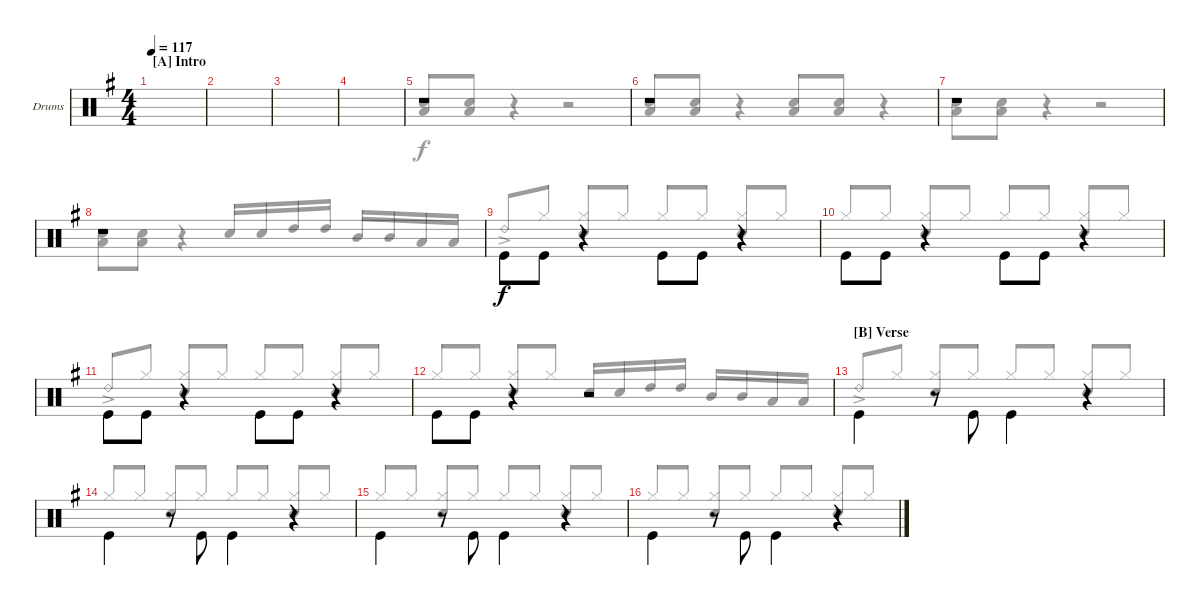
\defaultSystemsLayout 4
\bracketExtendMode groupsimilarinstruments
\firstSystemTrackNameOrientation horizontal
\otherSystemsTrackNameOrientation horizontal
\track ("Drums" "Drums") {instrument percussion}
\staff {score}
\articulation defaults
\voice
\ts (4 4)
\section ("A" "Intro")
\tempo 117
\clef neutral
\scale
1.05675
\ks g
|
\scale
0.943253 |
\scale
1.02648 |
\scale
0.973518 |
\scale
1.02648 r.1 |
\scale
0.973518 r.1 |
\scale
1.02648 r.1 |
\scale
0.973518 r.1 |
\scale
1.02648 "Kick (hit)".8{beam invert} "Kick (hit)".8 r.4 "Kick (hit)".8{beam invert} "Kick (hit)".8 r.4 |
\scale
0.973518 "Kick (hit)".8{beam invert} "Kick (hit)".8 r.4 "Kick (hit)".8{beam invert} "Kick (hit)".8 r.4 |
\scale
1.02648 "Kick (hit)".8{beam invert} "Kick (hit)".8 r.4 "Kick (hit)".8{beam invert} "Kick (hit)".8 r.4 |
\scale
0.973518 "Kick (hit)".8{beam invert} "Kick (hit)".8 r.4 r.2 |
\section ("B" "Verse")
\scale
1.02648 "Kick (hit)".4{beam invert} r.8 "Kick (hit)".8{beam invert} "Kick (hit)".4{beam invert} r.4 |
\scale
0.973518 "Kick (hit)".4{beam invert} r.8 "Kick (hit)".8{beam invert} "Kick (hit)".4{beam invert} r.4 |
\scale
1.02648 "Kick (hit)".4{beam invert} r.8 "Kick (hit)".8{beam invert} "Kick (hit)".4{beam invert} r.4 |
\scale
0.973518 "Kick (hit)".4{beam invert} r.8 "Kick (hit)".8{beam invert} "Kick (hit)".4{beam invert} r.4
\voice
\clef neutral
\ottava regular
\simile none
\scale
1.05675
\ks g
|
\scale
0.943253 |
\scale
1.02648 |
\scale
0.973518 |
\scale
1.02648 ("Low Tom (hit)" "Snare (hit) 2").8{beam invert} ("Low Tom (hit)" "Snare (hit) 2").8 r.4 r.2 |
\scale
0.973518 ("Low Tom (hit)" "Snare (hit) 2").8 ("Low Tom (hit)" "Snare (hit) 2").8 r.4{beam invert} ("Low Tom (hit)" "Snare (hit) 2").8 ("Low Tom (hit)" "Snare (hit) 2").8 r.4{beam invert} |
\scale
1.02648 ("Low Tom (hit)" "Snare (hit) 2").8 ("Low Tom (hit)" "Snare (hit) 2").8 r.4 r.2 |
\scale
0.973518 ("Low Tom (hit)" "Snare (hit) 2").8 ("Low Tom (hit)" "Snare (hit) 2").8 r.4 "Snare (hit) 2".16{beam invert} "Snare (hit) 2".16 "High Tom (hit)".16 "High Tom (hit)".16 "Mid Tom (hit)".16{beam invert} "Mid Tom (hit)".16 "Low Tom (hit)".16 "Low Tom (hit)".16 |
\scale
1.02648 "Ride (bell) 2"{ac}.8{beam invert} "Hi-Hat (closed)".8 ("Hi-Hat (closed)" "Snare (hit) 2").8{beam invert} "Hi-Hat (closed)".8 "Hi-Hat (closed)".8{beam invert} "Hi-Hat (closed)".8 ("Hi-Hat (closed)" "Snare (hit) 2").8{beam invert} "Hi-Hat (closed)".8 |
\scale
0.973518 "Hi-Hat (closed)".8{beam invert} "Hi-Hat (closed)".8 ("Hi-Hat (closed)" "Snare (hit) 2").8{beam invert} "Hi-Hat (closed)".8 "Hi-Hat (closed)".8{beam invert} "Hi-Hat (closed)".8 ("Hi-Hat (closed)" "Snare (hit) 2").8{beam invert} "Hi-Hat (closed)".8 |
\scale
1.02648 "Ride (bell) 2"{ac}.8{beam invert} "Hi-Hat (closed)".8 ("Hi-Hat (closed)" "Snare (hit) 2").8{beam invert} "Hi-Hat (closed)".8 "Hi-Hat (closed)".8{beam invert} "Hi-Hat (closed)".8 ("Hi-Hat (closed)" "Snare (hit) 2").8{beam invert} "Hi-Hat (closed)".8 |
\scale
0.973518 "Hi-Hat (closed)".8{beam invert} "Hi-Hat (closed)".8 ("Hi-Hat (closed)" "Snare (hit) 2").8{beam invert} "Hi-Hat (closed)".8 "Snare (hit) 2".16{beam invert} "Snare (hit) 2".16 "High Tom (hit)".16 "High Tom (hit)".16 "Mid Tom (hit)".16{beam invert} "Mid Tom (hit)".16 "Low Tom (hit)".16 "Low Tom (hit)".16 |
\scale
1.02648 "Ride (bell) 2"{ac}.8{beam invert} "Hi-Hat (closed)".8 ("Hi-Hat (closed)" "Snare (hit) 2").8{beam invert} "Hi-Hat (closed)".8 "Hi-Hat (closed)".8{beam invert} "Hi-Hat (closed)".8 ("Hi-Hat (closed)" "Snare (hit) 2").8{beam invert} "Hi-Hat (closed)".8 |
\scale
0.973518 "Hi-Hat (closed)".8{beam invert} "Hi-Hat (closed)".8 ("Hi-Hat (closed)" "Snare (hit) 2").8{beam invert} "Hi-Hat (closed)".8 "Hi-Hat (closed)".8{beam invert} "Hi-Hat (closed)".8 ("Hi-Hat (closed)" "Snare (hit) 2").8{beam invert} "Hi-Hat (closed)".8 |
\scale
1.02648 "Hi-Hat (closed)".8{beam invert} "Hi-Hat (closed)".8 ("Hi-Hat (closed)" "Snare (hit) 2").8{beam invert} "Hi-Hat (closed)".8 "Hi-Hat (closed)".8{beam invert} "Hi-Hat (closed)".8 ("Hi-Hat (closed)" "Snare (hit) 2").8{beam invert} "Hi-Hat (closed)".8 |
\scale
0.973518 "Hi-Hat (closed)".8{beam invert} "Hi-Hat (closed)".8 ("Hi-Hat (closed)" "Snare (hit) 2").8{beam invert} "Hi-Hat (closed)".8 "Hi-Hat (closed)".8{beam invert} "Hi-Hat (closed)".8 ("Hi-Hat (closed)" "Snare (hit) 2").8{beam invert} "Hi-Hat (closed)".8
